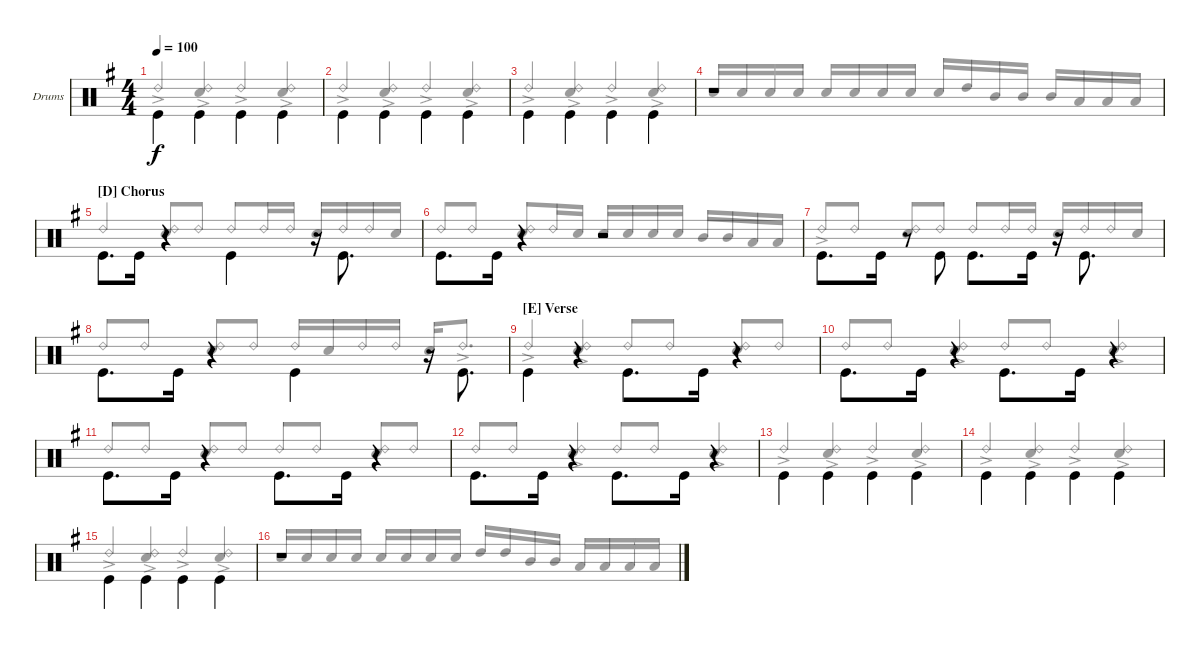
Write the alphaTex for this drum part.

\defaultSystemsLayout 4
\bracketExtendMode groupsimilarinstruments
\firstSystemTrackNameOrientation horizontal
\otherSystemsTrackNameOrientation horizontal
\track ("Drumkit" "Drums") {instrument percussion}
\staff {score}
\articulation defaults
\voice
\ts (4 4)
\scale
0.5
\tempo 100
\accidentals auto
\clef neutral
\ottava regular
\simile none
\scale
1.04288
\ks g "Kick (hit)".4{dy f beam invert} "Kick (hit)".4{beam invert} "Kick (hit)".4{beam invert} "Kick (hit)".4{beam invert}
|
\scale
0.5
\scale
0.957125 "Kick (hit)".4{beam invert} "Kick (hit)".4{beam invert} "Kick (hit)".4{beam invert} "Kick (hit)".4{beam invert} |
\scale
0.5
\scale
1.04288 "Kick (hit)".4{beam invert} "Kick (hit)".4{beam invert} "Kick (hit)".4{beam invert} "Kick (hit)".4{beam invert} |
\scale
0.5
\scale
0.957125 r.1 |
\section ("D" "Chorus")
\scale
0.5
\scale
1.04288 "Kick (hit)".8{d beam invert} "Kick (hit)".16 r.4{beam invert} "Kick (hit)".4{beam invert} r.16{beam invert} "Kick (hit)".8{d beam invert} |
\scale
0.5
\scale
0.957125 "Kick (hit)".8{d beam invert} "Kick (hit)".16 r.4{beam invert} r.2 |
\scale
0.5
\scale
1.04288 "Kick (hit)".8{d} "Kick (hit)".16{beam invert} r.8 "Kick (hit)".8{beam invert} "Kick (hit)".8{d beam invert} "Kick (hit)".16 r.16{beam invert} "Kick (hit)".8{d beam invert} |
\scale
0.5
\scale
0.957125 "Kick (hit)".8{d beam invert} "Kick (hit)".16 r.4{beam invert} "Kick (hit)".4{beam invert} r.16{beam invert} "Kick (hit)".8{d beam invert} |
\section ("E" "Verse")
\scale
0.5
\scale
1.04288 "Kick (hit)".4{beam invert} r.4 "Kick (hit)".8{d beam invert} "Kick (hit)".16 r.4 |
\scale
0.5
\scale
0.957125 "Kick (hit)".8{d beam invert} "Kick (hit)".16 r.4 "Kick (hit)".8{d beam invert} "Kick (hit)".16 r.4 |
\scale
0.5
\scale
1.04288 "Kick (hit)".8{d beam invert} "Kick (hit)".16 r.4 "Kick (hit)".8{d beam invert} "Kick (hit)".16 r.4 |
\scale
0.5
\scale
0.957125 "Kick (hit)".8{d beam invert} "Kick (hit)".16 r.4 "Kick (hit)".8{d beam invert} "Kick (hit)".16 r.4 |
\scale
0.5
\scale
1.04288 "Kick (hit)".4{beam invert} "Kick (hit)".4{beam invert} "Kick (hit)".4{beam invert} "Kick (hit)".4{beam invert} |
\scale
0.5
\scale
0.957125 "Kick (hit)".4{beam invert} "Kick (hit)".4{beam invert} "Kick (hit)".4{beam invert} "Kick (hit)".4{beam invert} |
\scale
0.5
\scale
1.04288 "Kick (hit)".4{beam invert} "Kick (hit)".4{beam invert} "Kick (hit)".4{beam invert} "Kick (hit)".4{beam invert} |
\scale
0.5
\scale
0.957125 r.1
\voice
\clef neutral
\ottava regular
\simile none
\scale
1.04288
\ks g "Ride (bell) 2"{ac}.4{dy f beam invert}
("Ride (bell) 2"{ac} "Snare (hit) 2"{ac}).4{beam invert} "Ride (bell) 2"{ac}.4{beam invert} ("Ride (bell) 2"{ac} "Snare (hit) 2"{ac}).4{beam invert} |
\scale
0.957125 "Ride (bell) 2"{ac}.4{beam invert} ("Ride (bell) 2"{ac} "Snare (hit) 2"{ac}).4{beam invert} "Ride (bell) 2"{ac}.4{beam invert} ("Ride (bell) 2"{ac} "Snare (hit) 2"{ac}).4{beam invert} |
\scale
1.04288 "Ride (bell) 2"{ac}.4{beam invert} ("Ride (bell) 2"{ac} "Snare (hit) 2"{ac}).4{beam invert} "Ride (bell) 2"{ac}.4{beam invert} ("Ride (bell) 2"{ac} "Snare (hit) 2"{ac}).4{beam invert} |
\scale
0.957125 "Snare (hit) 2".16 "Snare (hit) 2".16{beam invert} "Snare (hit) 2".16 "Snare (hit) 2".16 "Snare (hit) 2".16{beam invert} "Snare (hit) 2".16 "Snare (hit) 2".16 "Snare (hit) 2".16 "Snare (hit) 2".16 "High Tom (hit)".16{beam invert} "Mid Tom (hit)".16 "Mid Tom (hit)".16 "Mid Tom (hit)".16{beam invert} "Low Tom (hit)".16 "Low Tom (hit)".16 "Low Tom (hit)".16 |
\scale
1.04288 "Ride (bell) 2".4{beam invert} ("Ride (bell) 2" "Snare (hit) 2").8 "Ride (bell) 2".8{beam invert} "Ride (bell) 2".8{beam invert} "Ride (bell) 2".16 "Ride (bell) 2".16 "Snare (hit) 2".16{beam invert} "Ride (bell) 2".16{beam invert} "Ride (bell) 2".16{beam invert} "Snare (hit) 2".16 |
\scale
0.957125 "Ride (bell) 2".8 "Ride (bell) 2".8{beam invert} ("Ride (bell) 2" "Snare (hit) 2").8{beam invert} "Ride (bell) 2".16 "Snare (hit) 2".16 "Snare (hit) 2".16{beam invert} "Snare (hit) 2".16 "Snare (hit) 2".16 "Snare (hit) 2".16 "Mid Tom (hit)".16{beam invert} "Mid Tom (hit)".16 "Low Tom (hit)".16 "Low Tom (hit)".16 |
\scale
1.04288 "Ride (bell) 2"{ac}.8{beam invert} "Ride (bell) 2".8 ("Ride (bell) 2" "Snare (hit) 2").8{beam invert} "Ride (bell) 2".8 "Ride (bell) 2".8{beam invert} "Ride (bell) 2".16 "Ride (bell) 2".16 "Snare (hit) 2".16{beam invert} "Ride (bell) 2".16 "Ride (bell) 2".16 "Snare (hit) 2".16 |
\scale
0.957125 "Ride (bell) 2".8 "Ride (bell) 2".8{beam invert} ("Ride (bell) 2" "Snare (hit) 2").8{beam invert} "Ride (bell) 2".8 "Ride (bell) 2".16{beam invert} "Snare (hit) 2".16 "Ride (bell) 2".16 "Ride (bell) 2".16 "Snare (hit) 2".16{beam invert} "Ride (bell) 2"{ac}.8{d} |
\scale
1.04288 "Ride (bell) 2"{ac}.4{beam invert} ("Ride (bell) 2" "Snare (hit) 2"{ac}).4{beam invert} "Ride (bell) 2".8{beam invert} "Ride (bell) 2".8 ("Ride (bell) 2" "Snare (hit) 2").8{beam invert} "Ride (bell) 2".8 |
\scale
0.957125 "Ride (bell) 2".8{beam invert} "Ride (bell) 2".8 ("Ride (bell) 2"{ac} "Snare (hit) 2").4{beam invert} "Ride (bell) 2".8{beam invert} "Ride (bell) 2".8 ("Ride (bell) 2"{ac} "Snare (hit) 2").4{beam invert} |
\scale
1.04288 "Ride (bell) 2".8{beam invert} "Ride (bell) 2".8 ("Ride (bell) 2" "Snare (hit) 2").8{beam invert} "Ride (bell) 2".8 "Ride (bell) 2".8{beam invert} "Ride (bell) 2".8 ("Ride (bell) 2" "Snare (hit) 2").8{beam invert} "Ride (bell) 2".8 |
\scale
0.957125 "Ride (bell) 2".8{beam invert} "Ride (bell) 2".8 ("Ride (bell) 2"{ac} "Snare (hit) 2").4{beam invert} "Ride (bell) 2".8{beam invert} "Ride (bell) 2".8 ("Ride (bell) 2"{ac} "Snare (hit) 2").4{beam invert} |
\scale
1.04288 "Ride (bell) 2"{ac}.4{beam invert} ("Ride (bell) 2"{ac} "Snare (hit) 2"{ac}).4{beam invert} "Ride (bell) 2"{ac}.4{beam invert} ("Ride (bell) 2"{ac} "Snare (hit) 2"{ac}).4{beam invert} |
\scale
0.957125 "Ride (bell) 2"{ac}.4{beam invert} ("Ride (bell) 2"{ac} "Snare (hit) 2"{ac}).4{beam invert} "Ride (bell) 2"{ac}.4{beam invert} ("Ride (bell) 2"{ac} "Snare (hit) 2"{ac}).4{beam invert} |
\scale
1.04288 "Ride (bell) 2"{ac}.4{beam invert} ("Ride (bell) 2"{ac} "Snare (hit) 2"{ac}).4{beam invert} "Ride (bell) 2"{ac}.4{beam invert} ("Ride (bell) 2"{ac} "Snare (hit) 2"{ac}).4{beam invert} |
\scale
0.957125 "Snare (hit) 2".16{beam invert} "Snare (hit) 2".16 "Snare (hit) 2".16 "Snare (hit) 2".16 "Snare (hit) 2".16{beam invert} "Snare (hit) 2".16 "Snare (hit) 2".16 "Snare (hit) 2".16 "High Tom (hit)".16{beam invert} "High Tom (hit)".16 "Mid Tom (hit)".16 "Mid Tom (hit)".16 "Low Tom (hit)".16{beam invert} "Low Tom (hit)".16 "Low Tom (hit)".16 "Low Tom (hit)".16
